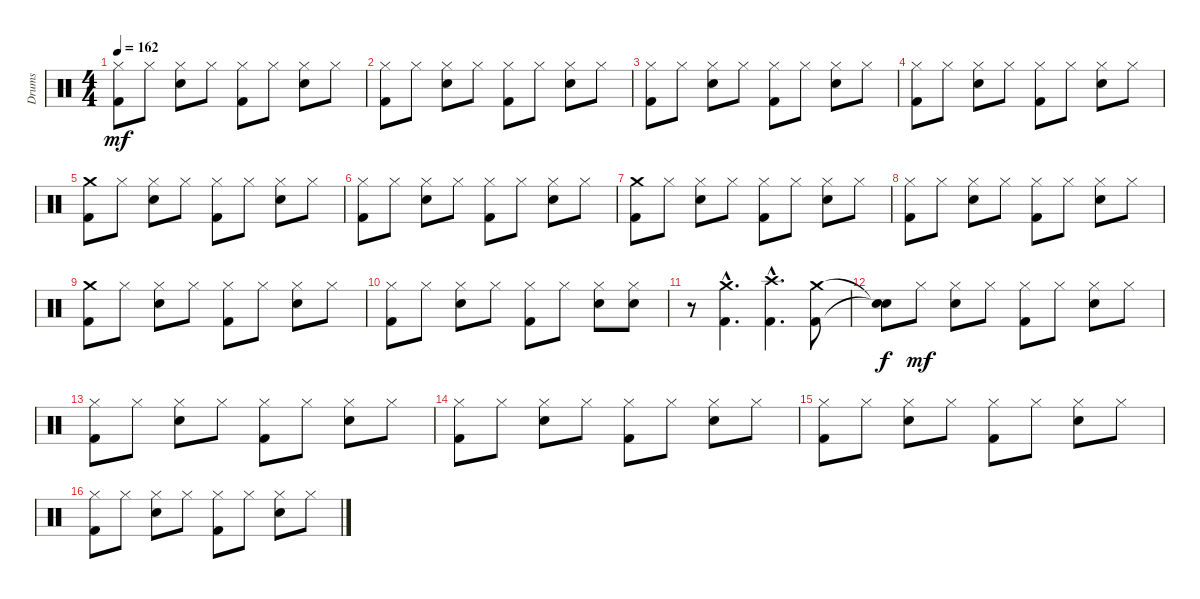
\track ("Drums" "Drums") {instrument percussion}
\staff {score}
\articulation defaults
\ts (4 4)
\tempo 162
\clef neutral
\ks c
("Hi-Hat (closed)" "Kick (hit) 2").8{dy mf} "Hi-Hat (closed)".8 ("Hi-Hat (closed)" "Snare (hit) 2").8 "Hi-Hat (closed)".8 ("Hi-Hat (closed)" "Kick (hit) 2").8 "Hi-Hat (closed)".8 ("Hi-Hat (closed)" "Snare (hit) 2").8 "Hi-Hat (closed)".8 |
("Hi-Hat (closed)" "Kick (hit) 2").8 "Hi-Hat (closed)".8 ("Hi-Hat (closed)" "Snare (hit) 2").8 "Hi-Hat (closed)".8 ("Hi-Hat (closed)" "Kick (hit) 2").8 "Hi-Hat (closed)".8 ("Hi-Hat (closed)" "Snare (hit) 2").8 "Hi-Hat (closed)".8 |
("Hi-Hat (closed)" "Kick (hit) 2").8 "Hi-Hat (closed)".8 ("Hi-Hat (closed)" "Snare (hit) 2").8 "Hi-Hat (closed)".8 ("Hi-Hat (closed)" "Kick (hit) 2").8 "Hi-Hat (closed)".8 ("Hi-Hat (closed)" "Snare (hit) 2").8 "Hi-Hat (closed)".8 |
("Hi-Hat (closed)" "Kick (hit) 2").8 "Hi-Hat (closed)".8 ("Hi-Hat (closed)" "Snare (hit) 2").8 "Hi-Hat (closed)".8 ("Hi-Hat (closed)" "Kick (hit) 2").8 "Hi-Hat (closed)".8 ("Hi-Hat (closed)" "Snare (hit) 2").8 "Hi-Hat (closed)".8 |
("Crash medium (hit)" "Kick (hit) 2").8 "Hi-Hat (closed)".8 ("Hi-Hat (closed)" "Snare (hit) 2").8 "Hi-Hat (closed)".8 ("Hi-Hat (closed)" "Kick (hit) 2").8 "Hi-Hat (closed)".8 ("Hi-Hat (closed)" "Snare (hit) 2").8 "Hi-Hat (closed)".8 |
("Hi-Hat (closed)" "Kick (hit) 2").8 "Hi-Hat (closed)".8 ("Hi-Hat (closed)" "Snare (hit) 2").8 "Hi-Hat (closed)".8 ("Hi-Hat (closed)" "Kick (hit) 2").8 "Hi-Hat (closed)".8 ("Hi-Hat (closed)" "Snare (hit) 2").8 "Hi-Hat (closed)".8 |
("Crash medium (hit)" "Kick (hit) 2").8 "Hi-Hat (closed)".8 ("Hi-Hat (closed)" "Snare (hit) 2").8 "Hi-Hat (closed)".8 ("Hi-Hat (closed)" "Kick (hit) 2").8 "Hi-Hat (closed)".8 ("Hi-Hat (closed)" "Snare (hit) 2").8 "Hi-Hat (closed)".8 |
("Hi-Hat (closed)" "Kick (hit) 2").8 "Hi-Hat (closed)".8 ("Hi-Hat (closed)" "Snare (hit) 2").8 "Hi-Hat (closed)".8 ("Hi-Hat (closed)" "Kick (hit) 2").8 "Hi-Hat (closed)".8 ("Hi-Hat (closed)" "Snare (hit) 2").8 "Hi-Hat (closed)".8 |
("Crash medium (hit)" "Kick (hit) 2").8 "Hi-Hat (closed)".8 ("Hi-Hat (closed)" "Snare (hit) 2").8 "Hi-Hat (closed)".8 ("Hi-Hat (closed)" "Kick (hit) 2").8 "Hi-Hat (closed)".8 ("Hi-Hat (closed)" "Snare (hit) 2").8 "Hi-Hat (closed)".8 |
("Hi-Hat (closed)" "Kick (hit) 2").8 "Hi-Hat (closed)".8 ("Hi-Hat (closed)" "Snare (hit) 2").8 "Hi-Hat (closed)".8 ("Hi-Hat (closed)" "Kick (hit) 2").8 "Hi-Hat (closed)".8 ("Hi-Hat (closed)" "Snare (hit) 2").8 ("Hi-Hat (closed)" "Snare (hit) 2").8 |
r.8 ("Crash medium (hit)"{hac} "Kick (hit) 2"{hac}).4{d} ("Crash high (hit)"{hac} "Kick (hit) 2"{hac}).4{d} ("Crash medium (hit)" "Kick (hit) 2").8 |
("Snare (hit)"{t} "Snare (hit)"{t}).8{dy f} "Hi-Hat (closed)".8{dy mf} ("Hi-Hat (closed)" "Snare (hit) 2").8 "Hi-Hat (closed)".8 ("Hi-Hat (closed)" "Kick (hit) 2").8 "Hi-Hat (closed)".8 ("Hi-Hat (closed)" "Snare (hit) 2").8 "Hi-Hat (closed)".8 |
("Hi-Hat (closed)" "Kick (hit) 2").8 "Hi-Hat (closed)".8 ("Hi-Hat (closed)" "Snare (hit) 2").8 "Hi-Hat (closed)".8 ("Hi-Hat (closed)" "Kick (hit) 2").8 "Hi-Hat (closed)".8 ("Hi-Hat (closed)" "Snare (hit) 2").8 "Hi-Hat (closed)".8 |
("Hi-Hat (closed)" "Kick (hit) 2").8 "Hi-Hat (closed)".8 ("Hi-Hat (closed)" "Snare (hit) 2").8 "Hi-Hat (closed)".8 ("Hi-Hat (closed)" "Kick (hit) 2").8 "Hi-Hat (closed)".8 ("Hi-Hat (closed)" "Snare (hit) 2").8 "Hi-Hat (closed)".8 |
("Hi-Hat (closed)" "Kick (hit) 2").8 "Hi-Hat (closed)".8 ("Hi-Hat (closed)" "Snare (hit) 2").8 "Hi-Hat (closed)".8 ("Hi-Hat (closed)" "Kick (hit) 2").8 "Hi-Hat (closed)".8 ("Hi-Hat (closed)" "Snare (hit) 2").8 "Hi-Hat (closed)".8 |
("Hi-Hat (closed)" "Kick (hit) 2").8 "Hi-Hat (closed)".8 ("Hi-Hat (closed)" "Snare (hit) 2").8 "Hi-Hat (closed)".8 ("Hi-Hat (closed)" "Kick (hit) 2").8 "Hi-Hat (closed)".8 ("Hi-Hat (closed)" "Snare (hit) 2").8 "Hi-Hat (closed)".8
